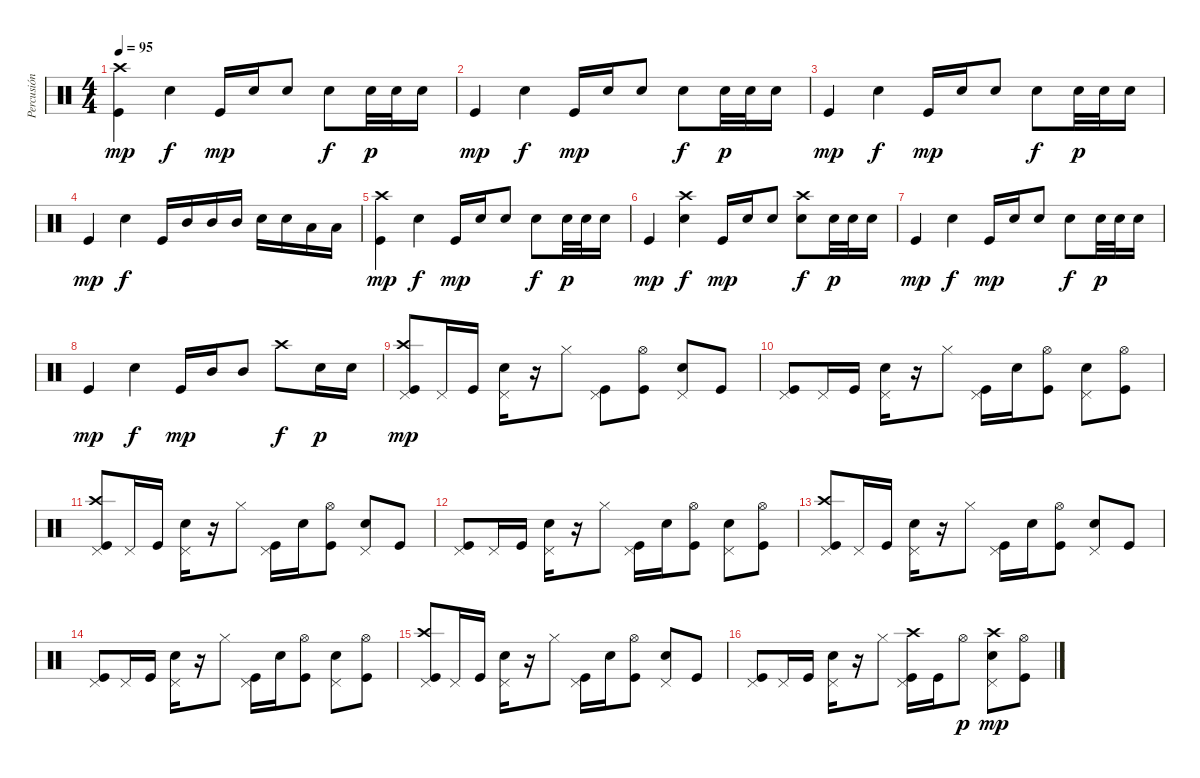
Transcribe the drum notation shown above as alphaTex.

\track ("Percusión" "Percusión") {instrument percussion}
\staff {score}
\articulation defaults
\ts (4 4)
\tempo 95
\clef neutral
\ks c
("Kick (hit)" "Crash high (hit)").4{dy mp} "Snare (hit) 2".4{dy f} "Kick (hit)".16{dy mp} "Snare (hit) 2".16 "Snare (hit) 2".8 "Snare (hit) 2".8{dy f} "Snare (hit) 2".32{dy p} "Snare (hit) 2".32 "Snare (hit) 2".16 |
"Kick (hit)".4{dy mp} "Snare (hit) 2".4{dy f} "Kick (hit)".16{dy mp} "Snare (hit) 2".16 "Snare (hit) 2".8 "Snare (hit) 2".8{dy f} "Snare (hit) 2".32{dy p} "Snare (hit) 2".32 "Snare (hit) 2".16 |
"Kick (hit)".4{dy mp} "Snare (hit) 2".4{dy f} "Kick (hit)".16{dy mp} "Snare (hit) 2".16 "Snare (hit) 2".8 "Snare (hit) 2".8{dy f} "Snare (hit) 2".32{dy p} "Snare (hit) 2".32 "Snare (hit) 2".16 |
"Kick (hit)".4{dy mp} "Snare (hit) 2".4{dy f} "Kick (hit)".16 "Mid Tom (hit)".16 "Mid Tom (hit)".16 "Mid Tom (hit)".16 "Snare (hit) 2".16 "Snare (hit) 2".16 "Low Tom (hit)".16 "Low Tom (hit)".16 |
("Kick (hit)" "Crash high (hit)").4{dy mp} "Snare (hit) 2".4{dy f} "Kick (hit)".16{dy mp} "Snare (hit) 2".16 "Snare (hit) 2".8 "Snare (hit) 2".8{dy f} "Snare (hit) 2".32{dy p} "Snare (hit) 2".32 "Snare (hit) 2".16 |
"Kick (hit)".4{dy mp} ("Snare (hit) 2" "Crash high (hit)").4{dy f} "Kick (hit)".16{dy mp} "Snare (hit) 2".16 "Snare (hit) 2".8 ("Snare (hit) 2" "Crash high (hit)").8{dy f} "Snare (hit) 2".32{dy p} "Snare (hit) 2".32 "Snare (hit) 2".16 |
"Kick (hit)".4{dy mp} "Snare (hit) 2".4{dy f} "Kick (hit)".16{dy mp} "Snare (hit) 2".16 "Snare (hit) 2".8 "Snare (hit) 2".8{dy f} "Snare (hit) 2".32{dy p} "Snare (hit) 2".32 "Snare (hit) 2".16 |
"Kick (hit)".4{dy mp} "Snare (hit) 2".4{dy f} "Kick (hit)".16{dy mp} "Mid Tom (hit)".16 "Mid Tom (hit)".8 "Crash high (hit)".8{dy f} "Snare (hit) 2".16{dy p} "Snare (hit) 2".16 |
("Pedal Hi-Hat (hit)" "Kick (hit)" "Crash high (hit)").8{dy mp} "Pedal Hi-Hat (hit)".16 "Kick (hit)".16 ("Pedal Hi-Hat (hit)" "Snare (hit) 2").16 r.16 "Hi-Hat (closed)".8 ("Pedal Hi-Hat (hit)" "Kick (hit)").8 ("Hi-Hat (open)" "Kick (hit)").8 ("Pedal Hi-Hat (hit)" "Snare (hit) 2").8 "Kick (hit)".8 |
("Pedal Hi-Hat (hit)" "Kick (hit)").8 "Pedal Hi-Hat (hit)".16 "Kick (hit)".16 ("Pedal Hi-Hat (hit)" "Snare (hit) 2").16 r.16 "Hi-Hat (closed)".8 ("Pedal Hi-Hat (hit)" "Kick (hit)").16 "Snare (hit) 2".16 ("Hi-Hat (open)" "Kick (hit)").8 ("Pedal Hi-Hat (hit)" "Snare (hit) 2").8 ("Hi-Hat (open)" "Kick (hit)").8 |
("Pedal Hi-Hat (hit)" "Kick (hit)" "Crash high (hit)").8 "Pedal Hi-Hat (hit)".16 "Kick (hit)".16 ("Pedal Hi-Hat (hit)" "Snare (hit) 2").16 r.16 "Hi-Hat (closed)".8 ("Pedal Hi-Hat (hit)" "Kick (hit)").16 "Snare (hit) 2".16 ("Hi-Hat (open)" "Kick (hit)").8 ("Pedal Hi-Hat (hit)" "Snare (hit) 2").8 "Kick (hit)".8 |
("Pedal Hi-Hat (hit)" "Kick (hit)").8 "Pedal Hi-Hat (hit)".16 "Kick (hit)".16 ("Pedal Hi-Hat (hit)" "Snare (hit) 2").16 r.16 "Hi-Hat (closed)".8 ("Pedal Hi-Hat (hit)" "Kick (hit)").16 "Snare (hit) 2".16 ("Hi-Hat (open)" "Kick (hit)").8 ("Pedal Hi-Hat (hit)" "Snare (hit) 2").8 ("Hi-Hat (open)" "Kick (hit)").8 |
("Pedal Hi-Hat (hit)" "Kick (hit)" "Crash high (hit)").8 "Pedal Hi-Hat (hit)".16 "Kick (hit)".16 ("Pedal Hi-Hat (hit)" "Snare (hit) 2").16 r.16 "Hi-Hat (closed)".8 ("Pedal Hi-Hat (hit)" "Kick (hit)").16 "Snare (hit) 2".16 ("Hi-Hat (open)" "Kick (hit)").8 ("Pedal Hi-Hat (hit)" "Snare (hit) 2").8 "Kick (hit)".8 |
("Pedal Hi-Hat (hit)" "Kick (hit)").8 "Pedal Hi-Hat (hit)".16 "Kick (hit)".16 ("Pedal Hi-Hat (hit)" "Snare (hit) 2").16 r.16 "Hi-Hat (closed)".8 ("Pedal Hi-Hat (hit)" "Kick (hit)").16 "Snare (hit) 2".16 ("Hi-Hat (open)" "Kick (hit)").8 ("Pedal Hi-Hat (hit)" "Snare (hit) 2").8 ("Hi-Hat (open)" "Kick (hit)").8 |
("Pedal Hi-Hat (hit)" "Kick (hit)" "Crash high (hit)").8 "Pedal Hi-Hat (hit)".16 "Kick (hit)".16 ("Pedal Hi-Hat (hit)" "Snare (hit) 2").16 r.16 "Hi-Hat (closed)".8 ("Pedal Hi-Hat (hit)" "Kick (hit)").16 "Snare (hit) 2".16 ("Hi-Hat (open)" "Kick (hit)").8 ("Pedal Hi-Hat (hit)" "Snare (hit) 2").8 "Kick (hit)".8 |
("Pedal Hi-Hat (hit)" "Kick (hit)").8 "Pedal Hi-Hat (hit)".16 "Kick (hit)".16 ("Pedal Hi-Hat (hit)" "Snare (hit) 2").16 r.16 "Hi-Hat (closed)".8 ("Pedal Hi-Hat (hit)" "Kick (hit)" "Crash high (hit)").16 "Kick (hit)".16 "Hi-Hat (open)".8{dy p} ("Pedal Hi-Hat (hit)" "Snare (hit) 2" "Crash high (hit)").8{dy mp} ("Hi-Hat (open)" "Kick (hit)").8
